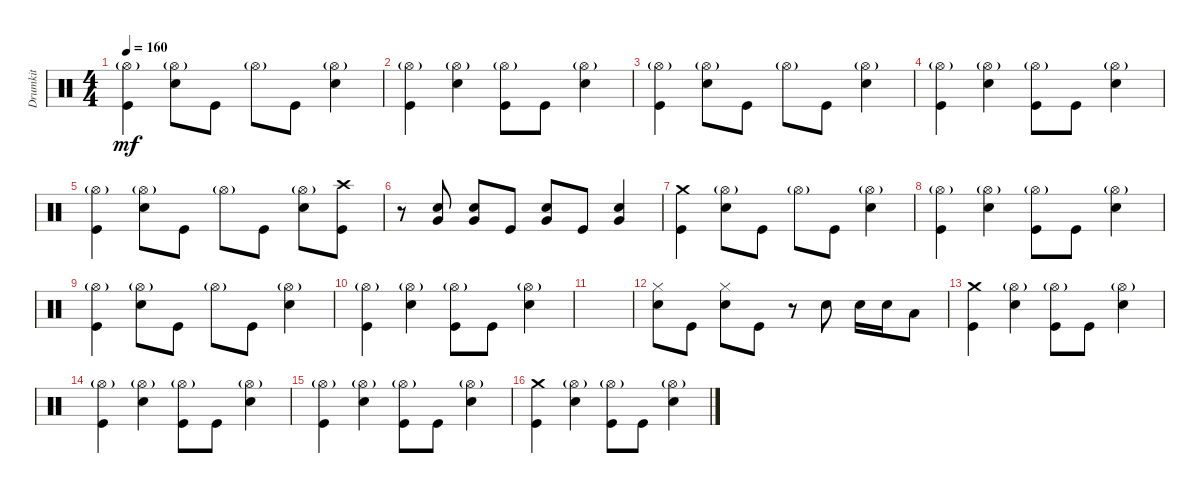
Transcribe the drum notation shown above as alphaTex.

\track ("Drumkit" "Drumkit") {instrument percussion}
\staff {score}
\articulation defaults
\ts (4 4)
\tempo 160
\clef neutral
\ks c
("Kick (hit)" "Hi-Hat (open)"{g}).4{dy mf} ("Snare (hit) 2" "Hi-Hat (open)"{g}).8 "Kick (hit)".8 "Hi-Hat (open)"{g}.8 "Kick (hit)".8 ("Snare (hit) 2" "Hi-Hat (open)"{g}).4 |
("Kick (hit)" "Hi-Hat (open)"{g}).4 ("Hi-Hat (open)"{g} "Snare (hit) 2").4 ("Kick (hit)" "Hi-Hat (open)"{g}).8 "Kick (hit)".8 ("Snare (hit) 2" "Hi-Hat (open)"{g}).4 |
("Kick (hit)" "Hi-Hat (open)"{g}).4 ("Snare (hit) 2" "Hi-Hat (open)"{g}).8 "Kick (hit)".8 "Hi-Hat (open)"{g}.8 "Kick (hit)".8 ("Snare (hit) 2" "Hi-Hat (open)"{g}).4 |
("Kick (hit)" "Hi-Hat (open)"{g}).4 ("Hi-Hat (open)"{g} "Snare (hit) 2").4 ("Kick (hit)" "Hi-Hat (open)"{g}).8 "Kick (hit)".8 ("Snare (hit) 2" "Hi-Hat (open)"{g}).4 |
("Kick (hit)" "Hi-Hat (open)"{g}).4 ("Snare (hit) 2" "Hi-Hat (open)"{g}).8 "Kick (hit)".8 "Hi-Hat (open)"{g}.8 "Kick (hit)".8 ("Snare (hit) 2" "Hi-Hat (open)"{g}).8 ("Kick (hit)" "Crash high (hit)").8 |
r.8 ("Snare (hit) 2" "Very Low Tom (hit)").8 ("Snare (hit) 2" "Very Low Tom (hit)").8 "Kick (hit)".8 ("Snare (hit) 2" "Very Low Tom (hit)").8 "Kick (hit)".8 ("Snare (hit) 2" "Very Low Tom (hit)").4 |
("Kick (hit)" "Crash medium (hit)").4 ("Snare (hit) 2" "Hi-Hat (open)"{g}).8 "Kick (hit)".8 "Hi-Hat (open)"{g}.8 "Kick (hit)".8 ("Snare (hit) 2" "Hi-Hat (open)"{g}).4 |
("Kick (hit)" "Hi-Hat (open)"{g}).4 ("Hi-Hat (open)"{g} "Snare (hit) 2").4 ("Kick (hit)" "Hi-Hat (open)"{g}).8 "Kick (hit)".8 ("Snare (hit) 2" "Hi-Hat (open)"{g}).4 |
("Kick (hit)" "Hi-Hat (open)"{g}).4 ("Snare (hit) 2" "Hi-Hat (open)"{g}).8 "Kick (hit)".8 "Hi-Hat (open)"{g}.8 "Kick (hit)".8 ("Snare (hit) 2" "Hi-Hat (open)"{g}).4 |
("Kick (hit)" "Hi-Hat (open)"{g}).4 ("Hi-Hat (open)"{g} "Snare (hit) 2").4 ("Kick (hit)" "Hi-Hat (open)"{g}).8 "Kick (hit)".8 ("Snare (hit) 2" "Hi-Hat (open)"{g}).4 |
|
("Snare (hit) 2" "Hi-Hat (closed)").8 "Kick (hit)".8 ("Snare (hit) 2" "Hi-Hat (closed)").8 "Kick (hit)".8 r.8 "Snare (hit) 2".8 "Snare (hit) 2".16 "Snare (hit) 2".16 "Low Tom (hit)".8 |
("Kick (hit)" "Crash medium (hit)").4 ("Hi-Hat (open)"{g} "Snare (hit) 2").4 ("Kick (hit)" "Hi-Hat (open)"{g}).8 "Kick (hit)".8 ("Snare (hit) 2" "Hi-Hat (open)"{g}).4 |
("Kick (hit)" "Hi-Hat (open)"{g}).4 ("Hi-Hat (open)"{g} "Snare (hit) 2").4 ("Kick (hit)" "Hi-Hat (open)"{g}).8 "Kick (hit)".8 ("Snare (hit) 2" "Hi-Hat (open)"{g}).4 |
("Kick (hit)" "Hi-Hat (open)"{g}).4 ("Hi-Hat (open)"{g} "Snare (hit) 2").4 ("Kick (hit)" "Hi-Hat (open)"{g}).8 "Kick (hit)".8 ("Snare (hit) 2" "Hi-Hat (open)"{g}).4 |
("Kick (hit)" "Crash medium (hit)").4 ("Hi-Hat (open)"{g} "Snare (hit) 2").4 ("Kick (hit)" "Hi-Hat (open)"{g}).8 "Kick (hit)".8 ("Snare (hit) 2" "Hi-Hat (open)"{g}).4
